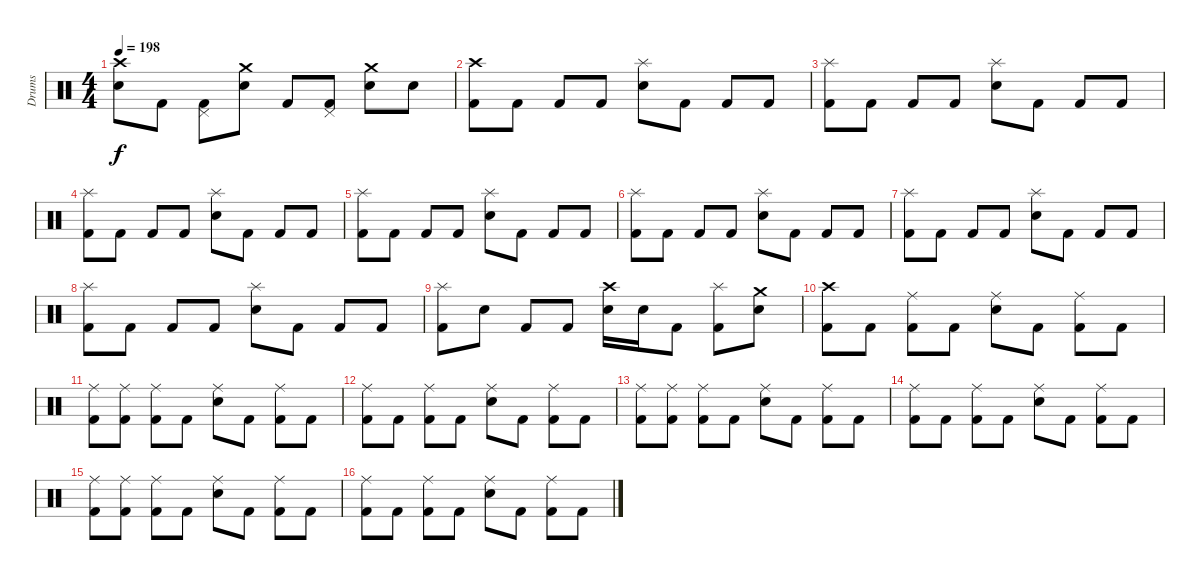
\track ("Drums" "Drums") {instrument percussion}
\staff {score}
\articulation defaults
\ts (4 4)
\tempo 198
\clef neutral
\ks c
("Crash high (hit)" "Electric Snare (hit)").8{dy f} "Kick (hit) 2".8 ("Pedal Hi-Hat (hit)" "Kick (hit) 2").8 ("Crash medium (hit)" "Electric Snare (hit)").8 "Kick (hit) 2".8 ("Pedal Hi-Hat (hit)" "Kick (hit) 2").8 ("Crash medium (hit)" "Electric Snare (hit)").8 "Electric Snare (hit)".8 |
("Crash high (hit)" "Kick (hit) 2").8 "Kick (hit) 2".8 "Kick (hit) 2".8 "Kick (hit) 2".8 ("Splash (hit)" "Electric Snare (hit)").8 "Kick (hit) 2".8 "Kick (hit) 2".8 "Kick (hit) 2".8 |
("Splash (hit)" "Kick (hit) 2").8 "Kick (hit) 2".8 "Kick (hit) 2".8 "Kick (hit) 2".8 ("Splash (hit)" "Electric Snare (hit)").8 "Kick (hit) 2".8 "Kick (hit) 2".8 "Kick (hit) 2".8 |
("Splash (hit)" "Kick (hit) 2").8 "Kick (hit) 2".8 "Kick (hit) 2".8 "Kick (hit) 2".8 ("Splash (hit)" "Electric Snare (hit)").8 "Kick (hit) 2".8 "Kick (hit) 2".8 "Kick (hit) 2".8 |
("Splash (hit)" "Kick (hit) 2").8 "Kick (hit) 2".8 "Kick (hit) 2".8 "Kick (hit) 2".8 ("Splash (hit)" "Electric Snare (hit)").8 "Kick (hit) 2".8 "Kick (hit) 2".8 "Kick (hit) 2".8 |
("Splash (hit)" "Kick (hit) 2").8 "Kick (hit) 2".8 "Kick (hit) 2".8 "Kick (hit) 2".8 ("Splash (hit)" "Electric Snare (hit)").8 "Kick (hit) 2".8 "Kick (hit) 2".8 "Kick (hit) 2".8 |
("Splash (hit)" "Kick (hit) 2").8 "Kick (hit) 2".8 "Kick (hit) 2".8 "Kick (hit) 2".8 ("Splash (hit)" "Electric Snare (hit)").8 "Kick (hit) 2".8 "Kick (hit) 2".8 "Kick (hit) 2".8 |
("Splash (hit)" "Kick (hit) 2").8 "Kick (hit) 2".8 "Kick (hit) 2".8 "Kick (hit) 2".8 ("Splash (hit)" "Electric Snare (hit)").8 "Kick (hit) 2".8 "Kick (hit) 2".8 "Kick (hit) 2".8 |
("Splash (hit)" "Kick (hit) 2").8 "Electric Snare (hit)".8 "Kick (hit) 2".8 "Kick (hit) 2".8 ("Crash high (hit)" "Electric Snare (hit)").16 "Electric Snare (hit)".16 "Kick (hit) 2".8 ("Splash (hit)" "Kick (hit) 2").8 ("Crash medium (hit)" "Electric Snare (hit)").8 |
("Crash high (hit)" "Kick (hit) 2").8 "Kick (hit) 2".8 ("Ride (middle)" "Kick (hit) 2").8 "Kick (hit) 2".8 ("Ride (middle)" "Electric Snare (hit)").8 "Kick (hit) 2".8 ("Ride (middle)" "Kick (hit) 2").8 "Kick (hit) 2".8 |
("Ride (middle)" "Kick (hit) 2").8 ("Ride (middle)" "Kick (hit) 2").8 ("Ride (middle)" "Kick (hit) 2").8 "Kick (hit) 2".8 ("Ride (middle)" "Electric Snare (hit)").8 "Kick (hit) 2".8 ("Ride (middle)" "Kick (hit) 2").8 "Kick (hit) 2".8 |
("Ride (middle)" "Kick (hit) 2").8 "Kick (hit) 2".8 ("Ride (middle)" "Kick (hit) 2").8 "Kick (hit) 2".8 ("Ride (middle)" "Electric Snare (hit)").8 "Kick (hit) 2".8 ("Ride (middle)" "Kick (hit) 2").8 "Kick (hit) 2".8 |
("Ride (middle)" "Kick (hit) 2").8 ("Ride (middle)" "Kick (hit) 2").8 ("Ride (middle)" "Kick (hit) 2").8 "Kick (hit) 2".8 ("Ride (middle)" "Electric Snare (hit)").8 "Kick (hit) 2".8 ("Ride (middle)" "Kick (hit) 2").8 "Kick (hit) 2".8 |
("Ride (middle)" "Kick (hit) 2").8 "Kick (hit) 2".8 ("Ride (middle)" "Kick (hit) 2").8 "Kick (hit) 2".8 ("Ride (middle)" "Electric Snare (hit)").8 "Kick (hit) 2".8 ("Ride (middle)" "Kick (hit) 2").8 "Kick (hit) 2".8 |
("Ride (middle)" "Kick (hit) 2").8 ("Ride (middle)" "Kick (hit) 2").8 ("Ride (middle)" "Kick (hit) 2").8 "Kick (hit) 2".8 ("Ride (middle)" "Electric Snare (hit)").8 "Kick (hit) 2".8 ("Ride (middle)" "Kick (hit) 2").8 "Kick (hit) 2".8 |
("Ride (middle)" "Kick (hit) 2").8 "Kick (hit) 2".8 ("Ride (middle)" "Kick (hit) 2").8 "Kick (hit) 2".8 ("Ride (middle)" "Electric Snare (hit)").8 "Kick (hit) 2".8 ("Ride (middle)" "Kick (hit) 2").8 "Kick (hit) 2".8
